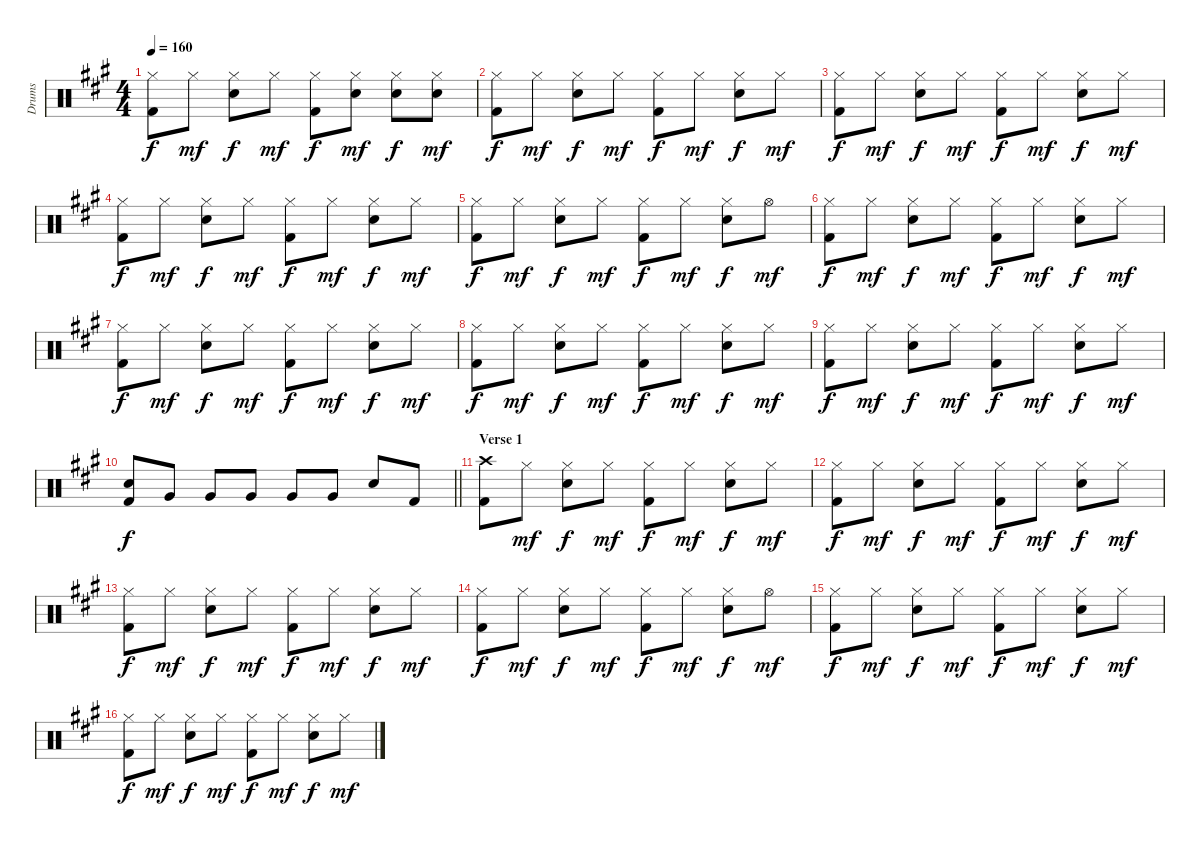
\track ("Drums" "Drums") {instrument percussion}
\staff {score}
\articulation defaults
\ts (4 4)
\tempo 160
\clef neutral
\ks a
("Hi-Hat (closed)" "Kick (hit) 2").8{dy f} "Hi-Hat (closed)".8{dy mf} ("Hi-Hat (closed)" "Electric Snare (hit)").8{dy f} "Hi-Hat (closed)".8{dy mf} ("Hi-Hat (closed)" "Kick (hit) 2").8{dy f} ("Hi-Hat (closed)" "Electric Snare (hit)").8{dy mf} ("Hi-Hat (closed)" "Electric Snare (hit)").8{dy f} ("Hi-Hat (closed)" "Electric Snare (hit)").8{dy mf} |
("Hi-Hat (closed)" "Kick (hit) 2").8{dy f} "Hi-Hat (closed)".8{dy mf} ("Hi-Hat (closed)" "Electric Snare (hit)").8{dy f} "Hi-Hat (closed)".8{dy mf} ("Hi-Hat (closed)" "Kick (hit) 2").8{dy f} "Hi-Hat (closed)".8{dy mf} ("Hi-Hat (closed)" "Electric Snare (hit)").8{dy f} "Hi-Hat (closed)".8{dy mf} |
("Hi-Hat (closed)" "Kick (hit) 2").8{dy f} "Hi-Hat (closed)".8{dy mf} ("Hi-Hat (closed)" "Electric Snare (hit)").8{dy f} "Hi-Hat (closed)".8{dy mf} ("Hi-Hat (closed)" "Kick (hit) 2").8{dy f} "Hi-Hat (closed)".8{dy mf} ("Hi-Hat (closed)" "Electric Snare (hit)").8{dy f} "Hi-Hat (closed)".8{dy mf} |
("Hi-Hat (closed)" "Kick (hit) 2").8{dy f} "Hi-Hat (closed)".8{dy mf} ("Hi-Hat (closed)" "Electric Snare (hit)").8{dy f} "Hi-Hat (closed)".8{dy mf} ("Hi-Hat (closed)" "Kick (hit) 2").8{dy f} "Hi-Hat (closed)".8{dy mf} ("Hi-Hat (closed)" "Electric Snare (hit)").8{dy f} "Hi-Hat (closed)".8{dy mf} |
("Hi-Hat (closed)" "Kick (hit) 2").8{dy f} "Hi-Hat (closed)".8{dy mf} ("Hi-Hat (closed)" "Electric Snare (hit)").8{dy f} "Hi-Hat (closed)".8{dy mf} ("Hi-Hat (closed)" "Kick (hit) 2").8{dy f} "Hi-Hat (closed)".8{dy mf} ("Hi-Hat (closed)" "Electric Snare (hit)").8{dy f} "Hi-Hat (open)".8{dy mf} |
("Hi-Hat (closed)" "Kick (hit) 2").8{dy f} "Hi-Hat (closed)".8{dy mf} ("Hi-Hat (closed)" "Electric Snare (hit)").8{dy f} "Hi-Hat (closed)".8{dy mf} ("Hi-Hat (closed)" "Kick (hit) 2").8{dy f} "Hi-Hat (closed)".8{dy mf} ("Hi-Hat (closed)" "Electric Snare (hit)").8{dy f} "Hi-Hat (closed)".8{dy mf} |
("Hi-Hat (closed)" "Kick (hit) 2").8{dy f} "Hi-Hat (closed)".8{dy mf} ("Hi-Hat (closed)" "Electric Snare (hit)").8{dy f} "Hi-Hat (closed)".8{dy mf} ("Hi-Hat (closed)" "Kick (hit) 2").8{dy f} "Hi-Hat (closed)".8{dy mf} ("Hi-Hat (closed)" "Electric Snare (hit)").8{dy f} "Hi-Hat (closed)".8{dy mf} |
("Hi-Hat (closed)" "Kick (hit) 2").8{dy f} "Hi-Hat (closed)".8{dy mf} ("Hi-Hat (closed)" "Electric Snare (hit)").8{dy f} "Hi-Hat (closed)".8{dy mf} ("Hi-Hat (closed)" "Kick (hit) 2").8{dy f} "Hi-Hat (closed)".8{dy mf} ("Hi-Hat (closed)" "Electric Snare (hit)").8{dy f} "Hi-Hat (closed)".8{dy mf} |
("Hi-Hat (closed)" "Kick (hit) 2").8{dy f} "Hi-Hat (closed)".8{dy mf} ("Hi-Hat (closed)" "Electric Snare (hit)").8{dy f} "Hi-Hat (closed)".8{dy mf} ("Hi-Hat (closed)" "Kick (hit) 2").8{dy f} "Hi-Hat (closed)".8{dy mf} ("Hi-Hat (closed)" "Electric Snare (hit)").8{dy f} "Hi-Hat (closed)".8{dy mf} |
\barLineRight lightlight
("Electric Snare (hit)" "Kick (hit) 2").8{dy f} "Very Low Tom (hit)".8 "Very Low Tom (hit)".8 "Very Low Tom (hit)".8 "Very Low Tom (hit)".8 "Very Low Tom (hit)".8 "Electric Snare (hit)".8 "Kick (hit) 2".8 |
\section ("" "Verse 1")
("Crash high (hit)" "Kick (hit) 2").8 "Hi-Hat (closed)".8{dy mf} ("Hi-Hat (closed)" "Electric Snare (hit)").8{dy f} "Hi-Hat (closed)".8{dy mf} ("Hi-Hat (closed)" "Kick (hit) 2").8{dy f} "Hi-Hat (closed)".8{dy mf} ("Hi-Hat (closed)" "Electric Snare (hit)").8{dy f} "Hi-Hat (closed)".8{dy mf} |
("Hi-Hat (closed)" "Kick (hit) 2").8{dy f} "Hi-Hat (closed)".8{dy mf} ("Hi-Hat (closed)" "Electric Snare (hit)").8{dy f} "Hi-Hat (closed)".8{dy mf} ("Hi-Hat (closed)" "Kick (hit) 2").8{dy f} "Hi-Hat (closed)".8{dy mf} ("Hi-Hat (closed)" "Electric Snare (hit)").8{dy f} "Hi-Hat (closed)".8{dy mf} |
("Hi-Hat (closed)" "Kick (hit) 2").8{dy f} "Hi-Hat (closed)".8{dy mf} ("Hi-Hat (closed)" "Electric Snare (hit)").8{dy f} "Hi-Hat (closed)".8{dy mf} ("Hi-Hat (closed)" "Kick (hit) 2").8{dy f} "Hi-Hat (closed)".8{dy mf} ("Hi-Hat (closed)" "Electric Snare (hit)").8{dy f} "Hi-Hat (closed)".8{dy mf} |
("Hi-Hat (closed)" "Kick (hit) 2").8{dy f} "Hi-Hat (closed)".8{dy mf} ("Hi-Hat (closed)" "Electric Snare (hit)").8{dy f} "Hi-Hat (closed)".8{dy mf} ("Hi-Hat (closed)" "Kick (hit) 2").8{dy f} "Hi-Hat (closed)".8{dy mf} ("Hi-Hat (closed)" "Electric Snare (hit)").8{dy f} "Hi-Hat (open)".8{dy mf} |
("Hi-Hat (closed)" "Kick (hit) 2").8{dy f} "Hi-Hat (closed)".8{dy mf} ("Hi-Hat (closed)" "Electric Snare (hit)").8{dy f} "Hi-Hat (closed)".8{dy mf} ("Hi-Hat (closed)" "Kick (hit) 2").8{dy f} "Hi-Hat (closed)".8{dy mf} ("Hi-Hat (closed)" "Electric Snare (hit)").8{dy f} "Hi-Hat (closed)".8{dy mf} |
("Hi-Hat (closed)" "Kick (hit) 2").8{dy f} "Hi-Hat (closed)".8{dy mf} ("Hi-Hat (closed)" "Electric Snare (hit)").8{dy f} "Hi-Hat (closed)".8{dy mf} ("Hi-Hat (closed)" "Kick (hit) 2").8{dy f} "Hi-Hat (closed)".8{dy mf} ("Hi-Hat (closed)" "Electric Snare (hit)").8{dy f} "Hi-Hat (closed)".8{dy mf}
